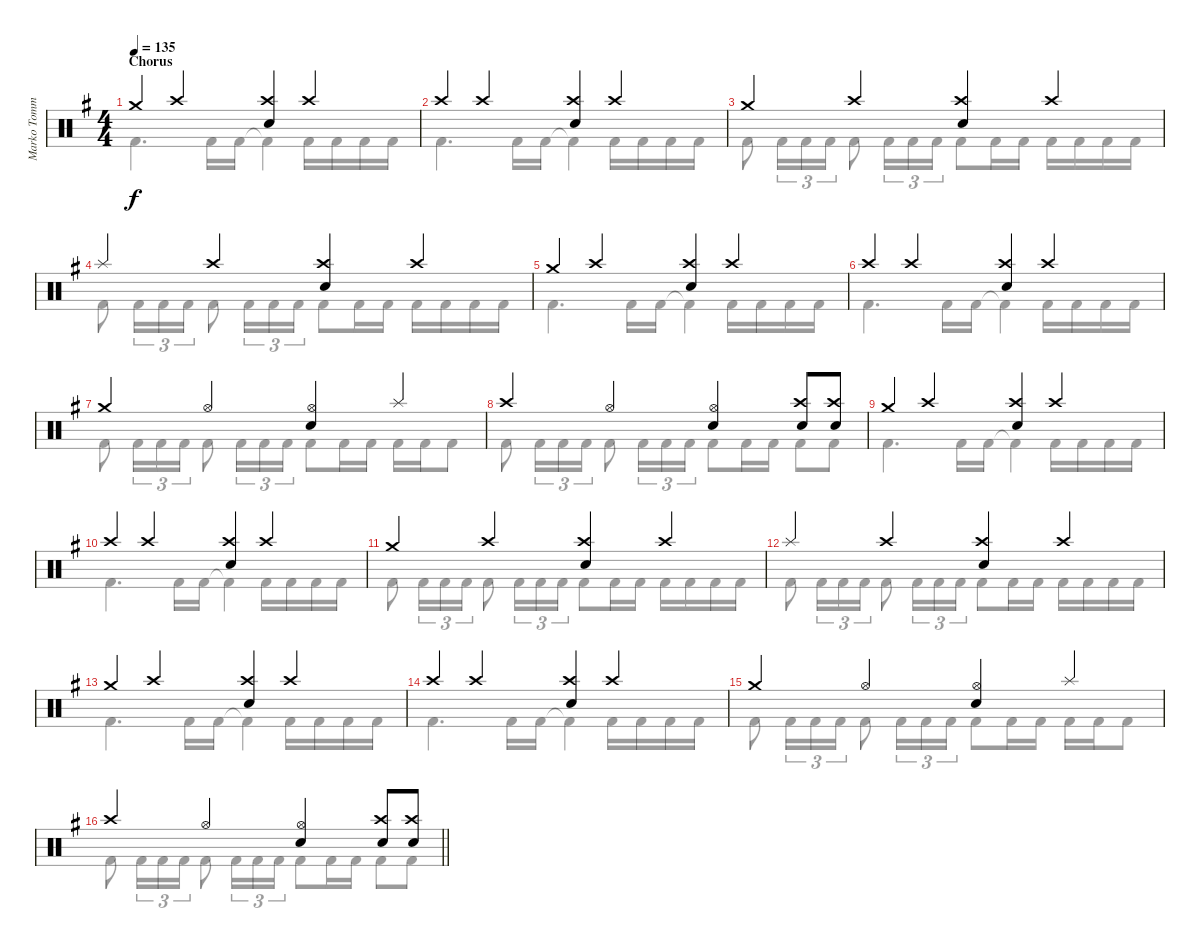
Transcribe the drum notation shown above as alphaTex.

\track ("Marko Tommila (drums)" "Marko Tomm") {instrument percussion}
\staff {score}
\articulation defaults
\voice
\ts (4 4)
\section ("" "Chorus")
\tempo 135
\clef neutral
\ks eminor "Crash medium (hit)".4{dy f} "Crash high (hit)".4
("Crash high (hit)" "Electric Snare (hit)").4 "Crash high (hit)".4 |
"Crash high (hit)".4 "Crash high (hit)".4 ("Crash high (hit)" "Electric Snare (hit)").4 "Crash high (hit)".4 |
"Crash medium (hit)".4 "Crash high (hit)".4 ("Crash high (hit)" "Electric Snare (hit)").4 "Crash high (hit)".4 |
"Splash (hit)".4 "Crash high (hit)".4 ("Crash high (hit)" "Electric Snare (hit)").4 "Crash high (hit)".4 |
"Crash medium (hit)".4 "Crash high (hit)".4 ("Crash high (hit)" "Electric Snare (hit)").4 "Crash high (hit)".4 |
"Crash high (hit)".4 "Crash high (hit)".4 ("Crash high (hit)" "Electric Snare (hit)").4 "Crash high (hit)".4 |
"Crash medium (hit)".4 "Hi-Hat (open)".4 ("Hi-Hat (open)" "Electric Snare (hit)").4 "Splash (hit)".4 |
"Crash high (hit)".4 "Hi-Hat (open)".4 ("Hi-Hat (open)" "Electric Snare (hit)").4 ("Crash high (hit)" "Electric Snare (hit)").8 ("Crash high (hit)" "Electric Snare (hit)").8 |
"Crash medium (hit)".4 "Crash high (hit)".4 ("Crash high (hit)" "Electric Snare (hit)").4 "Crash high (hit)".4 |
"Crash high (hit)".4 "Crash high (hit)".4 ("Crash high (hit)" "Electric Snare (hit)").4 "Crash high (hit)".4 |
"Crash medium (hit)".4 "Crash high (hit)".4 ("Crash high (hit)" "Electric Snare (hit)").4 "Crash high (hit)".4 |
"Splash (hit)".4 "Crash high (hit)".4 ("Crash high (hit)" "Electric Snare (hit)").4 "Crash high (hit)".4 |
"Crash medium (hit)".4 "Crash high (hit)".4 ("Crash high (hit)" "Electric Snare (hit)").4 "Crash high (hit)".4 |
"Crash high (hit)".4 "Crash high (hit)".4 ("Crash high (hit)" "Electric Snare (hit)").4 "Crash high (hit)".4 |
"Crash medium (hit)".4 "Hi-Hat (open)".4 ("Hi-Hat (open)" "Electric Snare (hit)").4 "Splash (hit)".4 |
\barLineRight lightlight "Crash high (hit)".4 "Hi-Hat (open)".4
("Hi-Hat (open)" "Electric Snare (hit)").4 ("Crash high (hit)" "Electric Snare (hit)").8 ("Crash high (hit)" "Electric Snare (hit)").8
\voice
\clef neutral
\ottava regular
\simile none
\ks eminor "Kick (hit) 2".4{d dy f} "Kick (hit) 2".16 "Kick (hit) 2".16 "Kick (hit) 2"{t}.4 "Kick (hit) 2".16 "Kick (hit) 2".16 "Kick (hit) 2".16 "Kick (hit) 2".16
|
"Kick (hit) 2".4{d} "Kick (hit) 2".16 "Kick (hit) 2".16 "Kick (hit) 2"{t}.4 "Kick (hit) 2".16 "Kick (hit) 2".16 "Kick (hit) 2".16 "Kick (hit) 2".16 |
"Kick (hit) 2".8 "Kick (hit) 2".16{tu (3 2)} "Kick (hit) 2".16{tu (3 2)} "Kick (hit) 2".16{tu (3 2)} "Kick (hit) 2".8 "Kick (hit) 2".16{tu (3 2)} "Kick (hit) 2".16{tu (3 2)} "Kick (hit) 2".16{tu (3 2)} "Kick (hit) 2".8 "Kick (hit) 2".16 "Kick (hit) 2".16 "Kick (hit) 2".16 "Kick (hit) 2".16 "Kick (hit) 2".16 "Kick (hit) 2".16 |
"Kick (hit) 2".8 "Kick (hit) 2".16{tu (3 2)} "Kick (hit) 2".16{tu (3 2)} "Kick (hit) 2".16{tu (3 2)} "Kick (hit) 2".8 "Kick (hit) 2".16{tu (3 2)} "Kick (hit) 2".16{tu (3 2)} "Kick (hit) 2".16{tu (3 2)} "Kick (hit) 2".8 "Kick (hit) 2".16 "Kick (hit) 2".16 "Kick (hit) 2".16 "Kick (hit) 2".16 "Kick (hit) 2".16 "Kick (hit) 2".16 |
"Kick (hit) 2".4{d} "Kick (hit) 2".16 "Kick (hit) 2".16 "Kick (hit) 2"{t}.4 "Kick (hit) 2".16 "Kick (hit) 2".16 "Kick (hit) 2".16 "Kick (hit) 2".16 |
"Kick (hit) 2".4{d} "Kick (hit) 2".16 "Kick (hit) 2".16 "Kick (hit) 2"{t}.4 "Kick (hit) 2".16 "Kick (hit) 2".16 "Kick (hit) 2".16 "Kick (hit) 2".16 |
"Kick (hit) 2".8 "Kick (hit) 2".16{tu (3 2)} "Kick (hit) 2".16{tu (3 2)} "Kick (hit) 2".16{tu (3 2)} "Kick (hit) 2".8 "Kick (hit) 2".16{tu (3 2)} "Kick (hit) 2".16{tu (3 2)} "Kick (hit) 2".16{tu (3 2)} "Kick (hit) 2".8 "Kick (hit) 2".16 "Kick (hit) 2".16 "Kick (hit) 2".16 "Kick (hit) 2".16 "Kick (hit) 2".8 |
"Kick (hit) 2".8 "Kick (hit) 2".16{tu (3 2)} "Kick (hit) 2".16{tu (3 2)} "Kick (hit) 2".16{tu (3 2)} "Kick (hit) 2".8 "Kick (hit) 2".16{tu (3 2)} "Kick (hit) 2".16{tu (3 2)} "Kick (hit) 2".16{tu (3 2)} "Kick (hit) 2".8 "Kick (hit) 2".16 "Kick (hit) 2".16 "Kick (hit) 2".8 "Kick (hit) 2".8 |
"Kick (hit) 2".4{d} "Kick (hit) 2".16 "Kick (hit) 2".16 "Kick (hit) 2"{t}.4 "Kick (hit) 2".16 "Kick (hit) 2".16 "Kick (hit) 2".16 "Kick (hit) 2".16 |
"Kick (hit) 2".4{d} "Kick (hit) 2".16 "Kick (hit) 2".16 "Kick (hit) 2"{t}.4 "Kick (hit) 2".16 "Kick (hit) 2".16 "Kick (hit) 2".16 "Kick (hit) 2".16 |
"Kick (hit) 2".8 "Kick (hit) 2".16{tu (3 2)} "Kick (hit) 2".16{tu (3 2)} "Kick (hit) 2".16{tu (3 2)} "Kick (hit) 2".8 "Kick (hit) 2".16{tu (3 2)} "Kick (hit) 2".16{tu (3 2)} "Kick (hit) 2".16{tu (3 2)} "Kick (hit) 2".8 "Kick (hit) 2".16 "Kick (hit) 2".16 "Kick (hit) 2".16 "Kick (hit) 2".16 "Kick (hit) 2".16 "Kick (hit) 2".16 |
"Kick (hit) 2".8 "Kick (hit) 2".16{tu (3 2)} "Kick (hit) 2".16{tu (3 2)} "Kick (hit) 2".16{tu (3 2)} "Kick (hit) 2".8 "Kick (hit) 2".16{tu (3 2)} "Kick (hit) 2".16{tu (3 2)} "Kick (hit) 2".16{tu (3 2)} "Kick (hit) 2".8 "Kick (hit) 2".16 "Kick (hit) 2".16 "Kick (hit) 2".16 "Kick (hit) 2".16 "Kick (hit) 2".16 "Kick (hit) 2".16 |
"Kick (hit) 2".4{d} "Kick (hit) 2".16 "Kick (hit) 2".16 "Kick (hit) 2"{t}.4 "Kick (hit) 2".16 "Kick (hit) 2".16 "Kick (hit) 2".16 "Kick (hit) 2".16 |
"Kick (hit) 2".4{d} "Kick (hit) 2".16 "Kick (hit) 2".16 "Kick (hit) 2"{t}.4 "Kick (hit) 2".16 "Kick (hit) 2".16 "Kick (hit) 2".16 "Kick (hit) 2".16 |
"Kick (hit) 2".8 "Kick (hit) 2".16{tu (3 2)} "Kick (hit) 2".16{tu (3 2)} "Kick (hit) 2".16{tu (3 2)} "Kick (hit) 2".8 "Kick (hit) 2".16{tu (3 2)} "Kick (hit) 2".16{tu (3 2)} "Kick (hit) 2".16{tu (3 2)} "Kick (hit) 2".8 "Kick (hit) 2".16 "Kick (hit) 2".16 "Kick (hit) 2".16 "Kick (hit) 2".16 "Kick (hit) 2".8 |
\barLineRight lightlight "Kick (hit) 2".8 "Kick (hit) 2".16{tu (3 2)} "Kick (hit) 2".16{tu (3 2)} "Kick (hit) 2".16{tu (3 2)} "Kick (hit) 2".8 "Kick (hit) 2".16{tu (3 2)} "Kick (hit) 2".16{tu (3 2)} "Kick (hit) 2".16{tu (3 2)} "Kick (hit) 2".8 "Kick (hit) 2".16 "Kick (hit) 2".16 "Kick (hit) 2".8 "Kick (hit) 2".8
